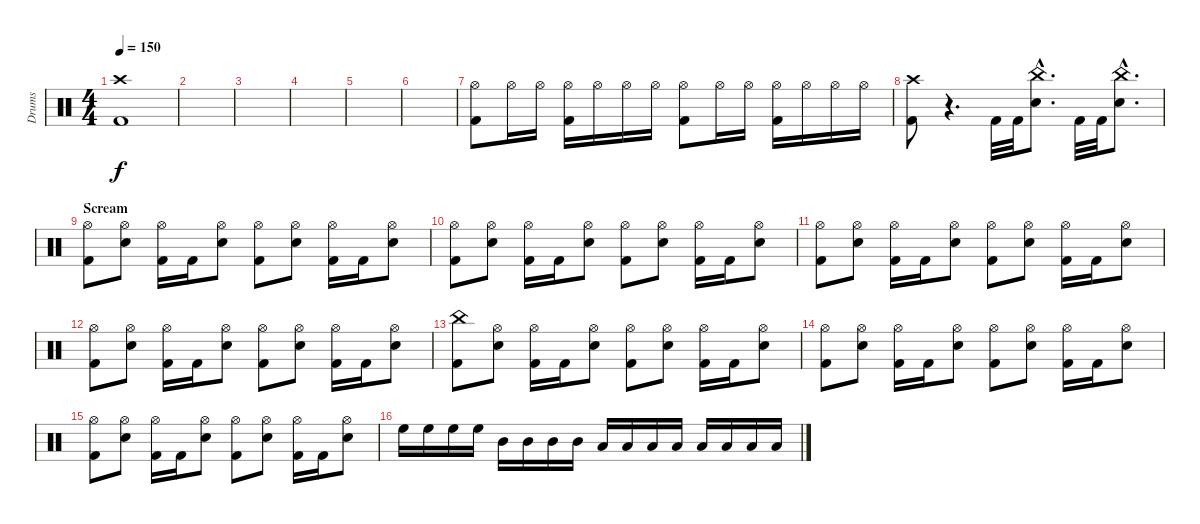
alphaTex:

\track ("Drums" "Drums") {instrument percussion}
\staff {score}
\articulation defaults
\ts (4 4)
\tempo 150
\clef neutral
\ks c
("Crash high (hit)" "Kick (hit) 2").1{dy f} |
|
|
|
|
|
("Hi-Hat (open)" "Kick (hit) 2").8 "Hi-Hat (open)".16 "Hi-Hat (open)".16 ("Hi-Hat (open)" "Kick (hit) 2").16 "Hi-Hat (open)".16 "Hi-Hat (open)".16 "Hi-Hat (open)".16 ("Hi-Hat (open)" "Kick (hit) 2").8 "Hi-Hat (open)".16 "Hi-Hat (open)".16 ("Hi-Hat (open)" "Kick (hit) 2").16 "Hi-Hat (open)".16 "Hi-Hat (open)".16 "Hi-Hat (open)".16 |
("Crash high (hit)" "Kick (hit) 2").8 r.4{d} "Kick (hit) 2".32 "Kick (hit) 2".32 ("China (hit)"{hac} "Snare (hit) 2"{hac}).8{d} "Kick (hit) 2".32 "Kick (hit) 2".32 ("China (hit)"{hac} "Snare (hit) 2"{hac}).8{d} |
\section ("" "Scream")
("Hi-Hat (open)" "Kick (hit) 2").8 ("Hi-Hat (open)" "Snare (hit) 2").8 ("Hi-Hat (open)" "Kick (hit) 2").16 "Kick (hit) 2".16 ("Hi-Hat (open)" "Snare (hit) 2").8 ("Hi-Hat (open)" "Kick (hit) 2").8 ("Hi-Hat (open)" "Snare (hit) 2").8 ("Hi-Hat (open)" "Kick (hit) 2").16 "Kick (hit) 2".16 ("Hi-Hat (open)" "Snare (hit) 2").8 |
("Hi-Hat (open)" "Kick (hit) 2").8 ("Hi-Hat (open)" "Snare (hit) 2").8 ("Hi-Hat (open)" "Kick (hit) 2").16 "Kick (hit) 2".16 ("Hi-Hat (open)" "Snare (hit) 2").8 ("Hi-Hat (open)" "Kick (hit) 2").8 ("Hi-Hat (open)" "Snare (hit) 2").8 ("Hi-Hat (open)" "Kick (hit) 2").16 "Kick (hit) 2".16 ("Hi-Hat (open)" "Snare (hit) 2").8 |
("Hi-Hat (open)" "Kick (hit) 2").8 ("Hi-Hat (open)" "Snare (hit) 2").8 ("Hi-Hat (open)" "Kick (hit) 2").16 "Kick (hit) 2".16 ("Hi-Hat (open)" "Snare (hit) 2").8 ("Hi-Hat (open)" "Kick (hit) 2").8 ("Hi-Hat (open)" "Snare (hit) 2").8 ("Hi-Hat (open)" "Kick (hit) 2").16 "Kick (hit) 2".16 ("Hi-Hat (open)" "Snare (hit) 2").8 |
("Hi-Hat (open)" "Kick (hit) 2").8 ("Hi-Hat (open)" "Snare (hit) 2").8 ("Hi-Hat (open)" "Kick (hit) 2").16 "Kick (hit) 2".16 ("Hi-Hat (open)" "Snare (hit) 2").8 ("Hi-Hat (open)" "Kick (hit) 2").8 ("Hi-Hat (open)" "Snare (hit) 2").8 ("Hi-Hat (open)" "Kick (hit) 2").16 "Kick (hit) 2".16 ("Hi-Hat (open)" "Snare (hit) 2").8 |
("China (hit)" "Kick (hit) 2").8 ("Hi-Hat (open)" "Snare (hit) 2").8 ("Hi-Hat (open)" "Kick (hit) 2").16 "Kick (hit) 2".16 ("Hi-Hat (open)" "Snare (hit) 2").8 ("Hi-Hat (open)" "Kick (hit) 2").8 ("Hi-Hat (open)" "Snare (hit) 2").8 ("Hi-Hat (open)" "Kick (hit) 2").16 "Kick (hit) 2".16 ("Hi-Hat (open)" "Snare (hit) 2").8 |
("Hi-Hat (open)" "Kick (hit) 2").8 ("Hi-Hat (open)" "Snare (hit) 2").8 ("Hi-Hat (open)" "Kick (hit) 2").16 "Kick (hit) 2".16 ("Hi-Hat (open)" "Snare (hit) 2").8 ("Hi-Hat (open)" "Kick (hit) 2").8 ("Hi-Hat (open)" "Snare (hit) 2").8 ("Hi-Hat (open)" "Kick (hit) 2").16 "Kick (hit) 2".16 ("Hi-Hat (open)" "Snare (hit) 2").8 |
("Hi-Hat (open)" "Kick (hit) 2").8 ("Hi-Hat (open)" "Snare (hit) 2").8 ("Hi-Hat (open)" "Kick (hit) 2").16 "Kick (hit) 2".16 ("Hi-Hat (open)" "Snare (hit) 2").8 ("Hi-Hat (open)" "Kick (hit) 2").8 ("Hi-Hat (open)" "Snare (hit) 2").8 ("Hi-Hat (open)" "Kick (hit) 2").16 "Kick (hit) 2".16 ("Hi-Hat (open)" "Snare (hit) 2").8 |
"High Floor Tom (hit)".16 "High Floor Tom (hit)".16 "High Floor Tom (hit)".16 "High Floor Tom (hit)".16 "Mid Tom (hit)".16 "Mid Tom (hit)".16 "Mid Tom (hit)".16 "Mid Tom (hit)".16 "Low Tom (hit)".16 "Low Tom (hit)".16 "Low Tom (hit)".16 "Low Tom (hit)".16 "Low Floor Tom (hit)".16 "Low Floor Tom (hit)".16 "Low Floor Tom (hit)".16 "Low Floor Tom (hit)".16
